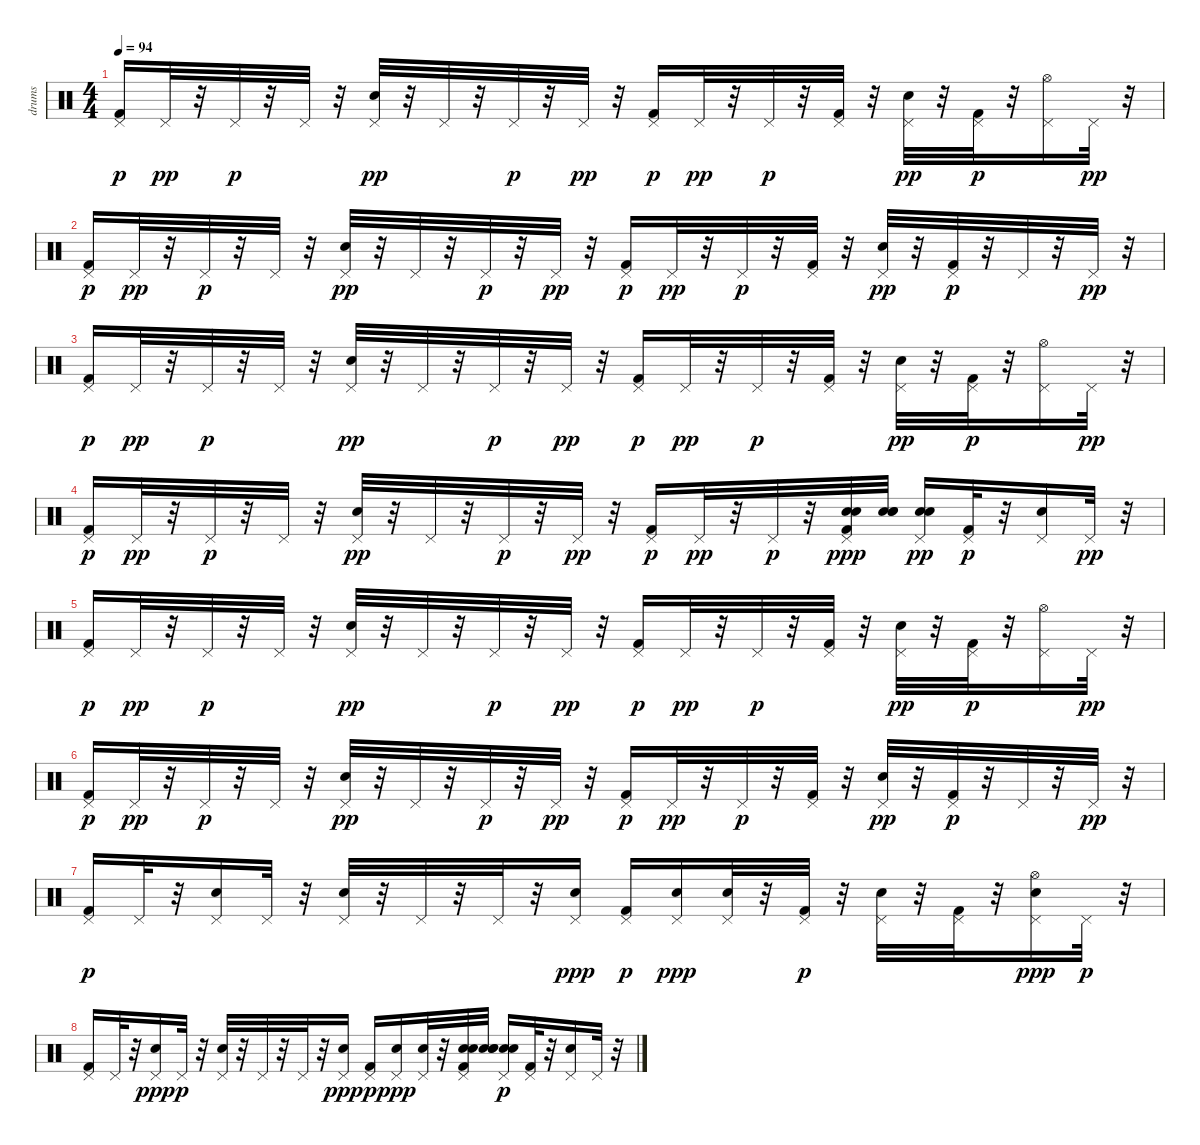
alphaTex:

\track ("drums" "drums") {instrument percussion}
\staff {score}
\articulation defaults
\ts (4 4)
\tempo 94
\clef neutral
\ks c
("Pedal Hi-Hat (hit)" "Kick (hit) 2").16{dy p} "Pedal Hi-Hat (hit)".32{dy pp} r.32 "Pedal Hi-Hat (hit)".32{dy p} r.32 "Pedal Hi-Hat (hit)".32 r.32 ("Snare (hit) 2" "Pedal Hi-Hat (hit)").32{dy pp} r.32 "Pedal Hi-Hat (hit)".32 r.32 "Pedal Hi-Hat (hit)".32{dy p} r.32 "Pedal Hi-Hat (hit)".32{dy pp} r.32 ("Pedal Hi-Hat (hit)" "Kick (hit) 2").16{dy p} "Pedal Hi-Hat (hit)".32{dy pp} r.32 "Pedal Hi-Hat (hit)".32{dy p} r.32 ("Pedal Hi-Hat (hit)" "Kick (hit) 2").32 r.32 ("Snare (hit) 2" "Pedal Hi-Hat (hit)").32{dy pp} r.32 ("Pedal Hi-Hat (hit)" "Kick (hit) 2").32{dy p} r.32 ("Hi-Hat (open)" "Pedal Hi-Hat (hit)").16 "Pedal Hi-Hat (hit)".32{dy pp} r.32 |
("Pedal Hi-Hat (hit)" "Kick (hit) 2").16{dy p} "Pedal Hi-Hat (hit)".32{dy pp} r.32 "Pedal Hi-Hat (hit)".32{dy p} r.32 "Pedal Hi-Hat (hit)".32 r.32 ("Snare (hit) 2" "Pedal Hi-Hat (hit)").32{dy pp} r.32 "Pedal Hi-Hat (hit)".32 r.32 "Pedal Hi-Hat (hit)".32{dy p} r.32 "Pedal Hi-Hat (hit)".32{dy pp} r.32 ("Pedal Hi-Hat (hit)" "Kick (hit) 2").16{dy p} "Pedal Hi-Hat (hit)".32{dy pp} r.32 "Pedal Hi-Hat (hit)".32{dy p} r.32 ("Pedal Hi-Hat (hit)" "Kick (hit) 2").32 r.32 ("Snare (hit) 2" "Pedal Hi-Hat (hit)").32{dy pp} r.32 ("Pedal Hi-Hat (hit)" "Kick (hit) 2").32{dy p} r.32 "Pedal Hi-Hat (hit)".32 r.32 "Pedal Hi-Hat (hit)".32{dy pp} r.32 |
("Pedal Hi-Hat (hit)" "Kick (hit) 2").16{dy p} "Pedal Hi-Hat (hit)".32{dy pp} r.32 "Pedal Hi-Hat (hit)".32{dy p} r.32 "Pedal Hi-Hat (hit)".32 r.32 ("Snare (hit) 2" "Pedal Hi-Hat (hit)").32{dy pp} r.32 "Pedal Hi-Hat (hit)".32 r.32 "Pedal Hi-Hat (hit)".32{dy p} r.32 "Pedal Hi-Hat (hit)".32{dy pp} r.32 ("Pedal Hi-Hat (hit)" "Kick (hit) 2").16{dy p} "Pedal Hi-Hat (hit)".32{dy pp} r.32 "Pedal Hi-Hat (hit)".32{dy p} r.32 ("Pedal Hi-Hat (hit)" "Kick (hit) 2").32 r.32 ("Snare (hit) 2" "Pedal Hi-Hat (hit)").32{dy pp} r.32 ("Pedal Hi-Hat (hit)" "Kick (hit) 2").32{dy p} r.32 ("Hi-Hat (open)" "Pedal Hi-Hat (hit)").16 "Pedal Hi-Hat (hit)".32{dy pp} r.32 |
("Pedal Hi-Hat (hit)" "Kick (hit) 2").16{dy p} "Pedal Hi-Hat (hit)".32{dy pp} r.32 "Pedal Hi-Hat (hit)".32{dy p} r.32 "Pedal Hi-Hat (hit)".32 r.32 ("Snare (hit) 2" "Pedal Hi-Hat (hit)").32{dy pp} r.32 "Pedal Hi-Hat (hit)".32 r.32 "Pedal Hi-Hat (hit)".32{dy p} r.32 "Pedal Hi-Hat (hit)".32{dy pp} r.32 ("Pedal Hi-Hat (hit)" "Kick (hit) 2").16{dy p} "Pedal Hi-Hat (hit)".32{dy pp} r.32 "Pedal Hi-Hat (hit)".32{dy p} r.32 ("Snare (hit) 2" "Pedal Hi-Hat (hit)" "Kick (hit) 2" "Snare (hit) 2").32{dy ppp balance 0} ("Snare (hit) 2" "Snare (hit) 2" "Snare (hit) 2").32 ("Snare (hit) 2" "Snare (hit) 2" "Pedal Hi-Hat (hit)").16{dy pp balance 8} ("Pedal Hi-Hat (hit)" "Kick (hit) 2").32{dy p} r.32 ("Snare (hit) 2" "Pedal Hi-Hat (hit)").16 "Pedal Hi-Hat (hit)".32{dy pp} r.32 |
("Pedal Hi-Hat (hit)" "Kick (hit) 2").16{dy p} "Pedal Hi-Hat (hit)".32{dy pp} r.32 "Pedal Hi-Hat (hit)".32{dy p} r.32 "Pedal Hi-Hat (hit)".32 r.32 ("Snare (hit) 2" "Pedal Hi-Hat (hit)").32{dy pp} r.32 "Pedal Hi-Hat (hit)".32 r.32 "Pedal Hi-Hat (hit)".32{dy p} r.32 "Pedal Hi-Hat (hit)".32{dy pp} r.32 ("Pedal Hi-Hat (hit)" "Kick (hit) 2").16{dy p} "Pedal Hi-Hat (hit)".32{dy pp} r.32 "Pedal Hi-Hat (hit)".32{dy p} r.32 ("Pedal Hi-Hat (hit)" "Kick (hit) 2").32 r.32 ("Snare (hit) 2" "Pedal Hi-Hat (hit)").32{dy pp} r.32 ("Pedal Hi-Hat (hit)" "Kick (hit) 2").32{dy p} r.32 ("Hi-Hat (open)" "Pedal Hi-Hat (hit)").16 "Pedal Hi-Hat (hit)".32{dy pp} r.32 |
("Pedal Hi-Hat (hit)" "Kick (hit) 2").16{dy p} "Pedal Hi-Hat (hit)".32{dy pp} r.32 "Pedal Hi-Hat (hit)".32{dy p} r.32 "Pedal Hi-Hat (hit)".32 r.32 ("Snare (hit) 2" "Pedal Hi-Hat (hit)").32{dy pp} r.32 "Pedal Hi-Hat (hit)".32 r.32 "Pedal Hi-Hat (hit)".32{dy p} r.32 "Pedal Hi-Hat (hit)".32{dy pp} r.32 ("Pedal Hi-Hat (hit)" "Kick (hit) 2").16{dy p} "Pedal Hi-Hat (hit)".32{dy pp} r.32 "Pedal Hi-Hat (hit)".32{dy p} r.32 ("Pedal Hi-Hat (hit)" "Kick (hit) 2").32 r.32 ("Snare (hit) 2" "Pedal Hi-Hat (hit)").32{dy pp} r.32 ("Pedal Hi-Hat (hit)" "Kick (hit) 2").32{dy p} r.32 "Pedal Hi-Hat (hit)".32 r.32 "Pedal Hi-Hat (hit)".32{dy pp} r.32 |
("Pedal Hi-Hat (hit)" "Kick (hit) 2").16{dy p} "Pedal Hi-Hat (hit)".32 r.32 ("Snare (hit) 2" "Pedal Hi-Hat (hit)").16 "Pedal Hi-Hat (hit)".32 r.32 ("Snare (hit) 2" "Pedal Hi-Hat (hit)").32 r.32 "Pedal Hi-Hat (hit)".32 r.32 "Pedal Hi-Hat (hit)".32 r.32 ("Pedal Hi-Hat (hit)" "Snare (hit) 2").16{dy ppp} ("Pedal Hi-Hat (hit)" "Kick (hit) 2").16{dy p} ("Pedal Hi-Hat (hit)" "Snare (hit) 2").16{dy ppp} ("Pedal Hi-Hat (hit)" "Snare (hit) 2").32 r.32 ("Pedal Hi-Hat (hit)" "Kick (hit) 2").32{dy p} r.32 ("Snare (hit) 2" "Pedal Hi-Hat (hit)").32 r.32 ("Pedal Hi-Hat (hit)" "Kick (hit) 2").32 r.32 ("Hi-Hat (open)" "Pedal Hi-Hat (hit)" "Snare (hit) 2").16{dy ppp} "Pedal Hi-Hat (hit)".32{dy p} r.32 |
("Pedal Hi-Hat (hit)" "Kick (hit) 2").16 "Pedal Hi-Hat (hit)".32 r.32 ("Pedal Hi-Hat (hit)" "Snare (hit) 2").16{dy ppp} "Pedal Hi-Hat (hit)".32{dy p} r.32 ("Snare (hit) 2" "Pedal Hi-Hat (hit)").32 r.32 "Pedal Hi-Hat (hit)".32 r.32 "Pedal Hi-Hat (hit)".32 r.32 ("Pedal Hi-Hat (hit)" "Snare (hit) 2").16{dy ppp} ("Pedal Hi-Hat (hit)" "Kick (hit) 2").16{dy p} ("Pedal Hi-Hat (hit)" "Snare (hit) 2").16{dy ppp} ("Pedal Hi-Hat (hit)" "Snare (hit) 2").32 r.32 ("Snare (hit) 2" "Pedal Hi-Hat (hit)" "Kick (hit) 2" "Snare (hit) 2").32{balance 0} ("Snare (hit) 2" "Snare (hit) 2" "Snare (hit) 2").32 ("Snare (hit) 2" "Snare (hit) 2" "Pedal Hi-Hat (hit)").16{dy p} ("Pedal Hi-Hat (hit)" "Kick (hit) 2").32{balance 8} r.32 ("Snare (hit) 2" "Pedal Hi-Hat (hit)").16 "Pedal Hi-Hat (hit)".32 r.32
